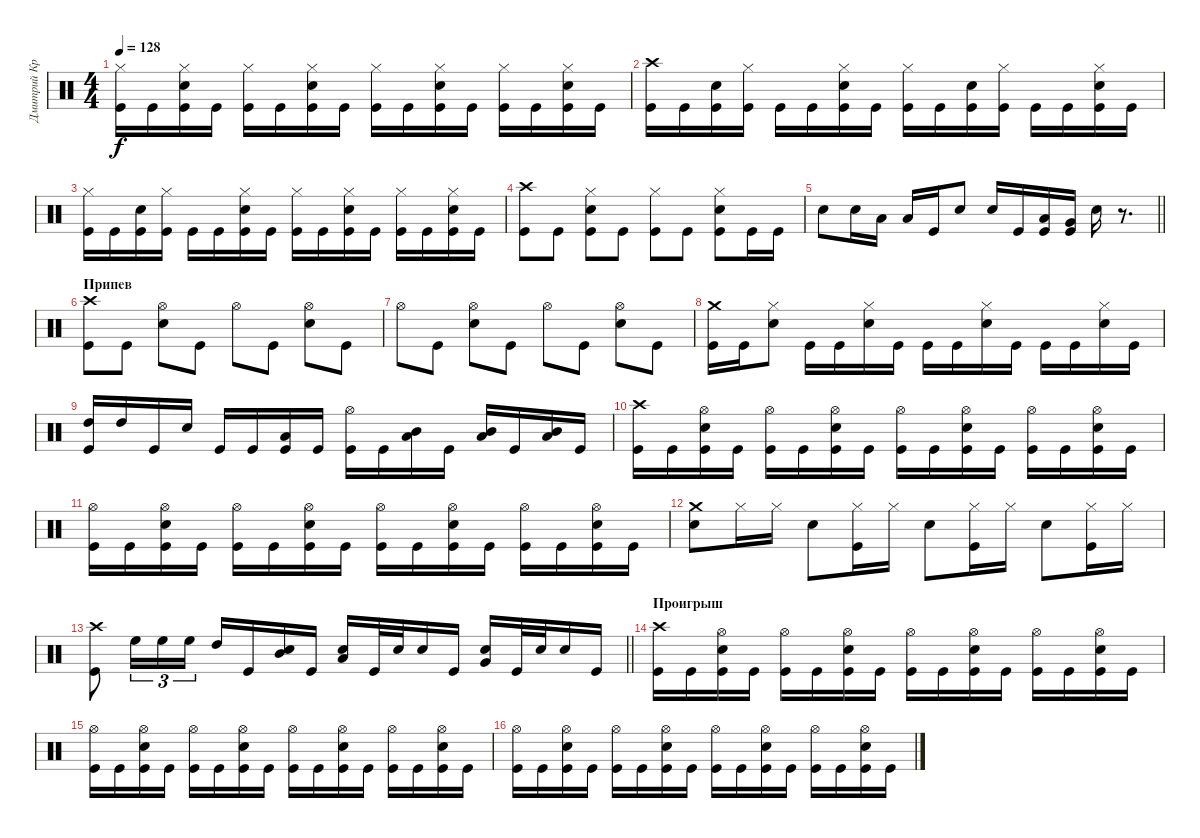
\track ("Дмитрий Кривенков" "Дмитрий Кр") {instrument percussion}
\staff {score}
\articulation defaults
\ts (4 4)
\tempo 128
\clef neutral
\ks c
("Hi-Hat (closed)" "Kick (hit)").16{dy f} "Kick (hit)".16 ("Snare (hit) 2" "Hi-Hat (closed)" "Kick (hit)").16 "Kick (hit)".16 ("Hi-Hat (closed)" "Kick (hit)").16 "Kick (hit)".16 ("Snare (hit) 2" "Hi-Hat (closed)" "Kick (hit)").16 "Kick (hit)".16 ("Hi-Hat (closed)" "Kick (hit)").16 "Kick (hit)".16 ("Snare (hit) 2" "Hi-Hat (closed)" "Kick (hit)").16 "Kick (hit)".16 ("Hi-Hat (closed)" "Kick (hit)").16 "Kick (hit)".16 ("Snare (hit) 2" "Hi-Hat (closed)" "Kick (hit)").16 "Kick (hit)".16 |
("Crash high (hit)" "Kick (hit)").16 "Kick (hit)".16 ("Snare (hit) 2" "Kick (hit)").16 ("Hi-Hat (closed)" "Kick (hit)").16 "Kick (hit)".16 "Kick (hit)".16 ("Snare (hit) 2" "Hi-Hat (closed)" "Kick (hit)").16 "Kick (hit)".16 ("Hi-Hat (closed)" "Kick (hit)").16 "Kick (hit)".16 ("Snare (hit) 2" "Kick (hit)").16 ("Hi-Hat (closed)" "Kick (hit)").16 "Kick (hit)".16 "Kick (hit)".16 ("Snare (hit) 2" "Hi-Hat (closed)" "Kick (hit)").16 "Kick (hit)".16 |
("Hi-Hat (closed)" "Kick (hit)").16 "Kick (hit)".16 ("Snare (hit) 2" "Kick (hit)").16 ("Hi-Hat (closed)" "Kick (hit)").16 "Kick (hit)".16 "Kick (hit)".16 ("Snare (hit) 2" "Hi-Hat (closed)" "Kick (hit)").16 "Kick (hit)".16 ("Hi-Hat (closed)" "Kick (hit)").16 "Kick (hit)".16 ("Snare (hit) 2" "Hi-Hat (closed)" "Kick (hit)").16 "Kick (hit)".16 ("Hi-Hat (closed)" "Kick (hit)").16 "Kick (hit)".16 ("Snare (hit) 2" "Hi-Hat (closed)" "Kick (hit)").16 "Kick (hit)".16 |
("Crash high (hit)" "Kick (hit)").8 "Kick (hit)".8 ("Snare (hit) 2" "Hi-Hat (closed)" "Kick (hit)").8 "Kick (hit)".8 ("Hi-Hat (closed)" "Kick (hit)").8 "Kick (hit)".8 ("Snare (hit) 2" "Hi-Hat (closed)" "Kick (hit)").8 "Kick (hit)".16 "Kick (hit)".16 |
\barLineRight lightlight "Snare (hit) 2".8 "Snare (hit) 2".16 "Low Tom (hit)".16 "Low Tom (hit)".16 "Kick (hit)".16 "Snare (hit) 2".8 "Snare (hit) 2".16 "Kick (hit)".16
("Kick (hit)" "Low Tom (hit)").16 ("Kick (hit)" "Very Low Tom (hit)").16 "Snare (hit) 2".16 r.8{d} |
\section ("" "Припев")
("Crash high (hit)" "Kick (hit)").8 "Kick (hit)".8 ("Snare (hit) 2" "Hi-Hat (open)").8 "Kick (hit)".8 "Hi-Hat (open)".8 "Kick (hit)".8 ("Snare (hit) 2" "Hi-Hat (open)").8 "Kick (hit)".8 |
"Hi-Hat (open)".8 "Kick (hit)".8 ("Snare (hit) 2" "Hi-Hat (open)").8 "Kick (hit)".8 "Hi-Hat (open)".8 "Kick (hit)".8 ("Snare (hit) 2" "Hi-Hat (open)").8 "Kick (hit)".8 |
("Crash medium (hit)" "Kick (hit)").16 "Kick (hit)".16 ("Snare (hit) 2" "Hi-Hat (closed)").8 "Kick (hit)".16 "Kick (hit)".16 ("Snare (hit) 2" "Hi-Hat (closed)").16 "Kick (hit)".16 "Kick (hit)".16 "Kick (hit)".16 ("Snare (hit) 2" "Hi-Hat (closed)").16 "Kick (hit)".16 "Kick (hit)".16 "Kick (hit)".16 ("Snare (hit) 2" "Hi-Hat (closed)").16 "Kick (hit)".16 |
("High Tom (hit)" "Kick (hit)").16 "High Tom (hit)".16 "Kick (hit)".16 "Snare (hit) 2".16 "Kick (hit)".16 "Kick (hit)".16 ("Kick (hit)" "Low Tom (hit)").16 "Kick (hit)".16 ("Kick (hit)" "Hi-Hat (open)").16 "Kick (hit)".16 ("Mid Tom (hit)" "Low Tom (hit)").16{bd 240} "Kick (hit)".16 ("Mid Tom (hit)" "Low Tom (hit)").16{bd 240} "Kick (hit)".16 ("Mid Tom (hit)" "Low Tom (hit)").16{bd 240} "Kick (hit)".16 |
("Crash high (hit)" "Kick (hit)").16 "Kick (hit)".16 ("Snare (hit) 2" "Hi-Hat (open)" "Kick (hit)").16 "Kick (hit)".16 ("Hi-Hat (open)" "Kick (hit)").16 "Kick (hit)".16 ("Snare (hit) 2" "Hi-Hat (open)" "Kick (hit)").16 "Kick (hit)".16 ("Hi-Hat (open)" "Kick (hit)").16 "Kick (hit)".16 ("Snare (hit) 2" "Hi-Hat (open)" "Kick (hit)").16 "Kick (hit)".16 ("Hi-Hat (open)" "Kick (hit)").16 "Kick (hit)".16 ("Snare (hit) 2" "Hi-Hat (open)" "Kick (hit)").16 "Kick (hit)".16 |
("Hi-Hat (open)" "Kick (hit)").16 "Kick (hit)".16 ("Snare (hit) 2" "Hi-Hat (open)" "Kick (hit)").16 "Kick (hit)".16 ("Hi-Hat (open)" "Kick (hit)").16 "Kick (hit)".16 ("Snare (hit) 2" "Hi-Hat (open)" "Kick (hit)").16 "Kick (hit)".16 ("Hi-Hat (open)" "Kick (hit)").16 "Kick (hit)".16 ("Snare (hit) 2" "Hi-Hat (open)" "Kick (hit)").16 "Kick (hit)".16 ("Hi-Hat (open)" "Kick (hit)").16 "Kick (hit)".16 ("Snare (hit) 2" "Hi-Hat (open)" "Kick (hit)").16 "Kick (hit)".16 |
("Crash medium (hit)" "Snare (hit) 2").8 "Hi-Hat (closed)".16 "Hi-Hat (closed)".16 "Snare (hit) 2".8 ("Kick (hit)" "Hi-Hat (closed)").16 "Hi-Hat (closed)".16 "Snare (hit) 2".8 ("Kick (hit)" "Hi-Hat (closed)").16 "Hi-Hat (closed)".16 "Snare (hit) 2".8 ("Kick (hit)" "Hi-Hat (closed)").16 "Hi-Hat (closed)".16 |
\barLineRight lightlight
("Kick (hit)" "Crash high (hit)").8 "High Floor Tom (hit)".16{tu (3 2)} "High Floor Tom (hit)".16{tu (3 2)} "High Floor Tom (hit)".16{tu (3 2)} "High Tom (hit)".16 "Kick (hit)".16 ("Mid Tom (hit)" "Snare (hit) 2").16 "Kick (hit)".16 ("Low Tom (hit)" "Snare (hit) 2").16 "Kick (hit)".32 "Snare (hit) 2".32 "Snare (hit) 2".16 "Kick (hit)".16 ("Very Low Tom (hit)" "Snare (hit) 2").16 "Kick (hit)".32 "Snare (hit) 2".32 "Snare (hit) 2".16 "Kick (hit)".16 |
\section ("" "Проигрыш")
("Crash high (hit)" "Kick (hit)").16 "Kick (hit)".16 ("Snare (hit) 2" "Hi-Hat (open)" "Kick (hit)").16 "Kick (hit)".16 ("Hi-Hat (open)" "Kick (hit)").16 "Kick (hit)".16 ("Snare (hit) 2" "Hi-Hat (open)" "Kick (hit)").16 "Kick (hit)".16 ("Hi-Hat (open)" "Kick (hit)").16 "Kick (hit)".16 ("Snare (hit) 2" "Hi-Hat (open)" "Kick (hit)").16 "Kick (hit)".16 ("Hi-Hat (open)" "Kick (hit)").16 "Kick (hit)".16 ("Snare (hit) 2" "Hi-Hat (open)" "Kick (hit)").16 "Kick (hit)".16 |
("Hi-Hat (open)" "Kick (hit)").16 "Kick (hit)".16 ("Snare (hit) 2" "Hi-Hat (open)" "Kick (hit)").16 "Kick (hit)".16 ("Hi-Hat (open)" "Kick (hit)").16 "Kick (hit)".16 ("Snare (hit) 2" "Hi-Hat (open)" "Kick (hit)").16 "Kick (hit)".16 ("Hi-Hat (open)" "Kick (hit)").16 "Kick (hit)".16 ("Snare (hit) 2" "Hi-Hat (open)" "Kick (hit)").16 "Kick (hit)".16 ("Hi-Hat (open)" "Kick (hit)").16 "Kick (hit)".16 ("Snare (hit) 2" "Hi-Hat (open)" "Kick (hit)").16 "Kick (hit)".16 |
("Hi-Hat (open)" "Kick (hit)").16 "Kick (hit)".16 ("Snare (hit) 2" "Hi-Hat (open)" "Kick (hit)").16 "Kick (hit)".16 ("Hi-Hat (open)" "Kick (hit)").16 "Kick (hit)".16 ("Snare (hit) 2" "Hi-Hat (open)" "Kick (hit)").16 "Kick (hit)".16 ("Hi-Hat (open)" "Kick (hit)").16 "Kick (hit)".16 ("Snare (hit) 2" "Hi-Hat (open)" "Kick (hit)").16 "Kick (hit)".16 ("Hi-Hat (open)" "Kick (hit)").16 "Kick (hit)".16 ("Snare (hit) 2" "Hi-Hat (open)" "Kick (hit)").16 "Kick (hit)".16
